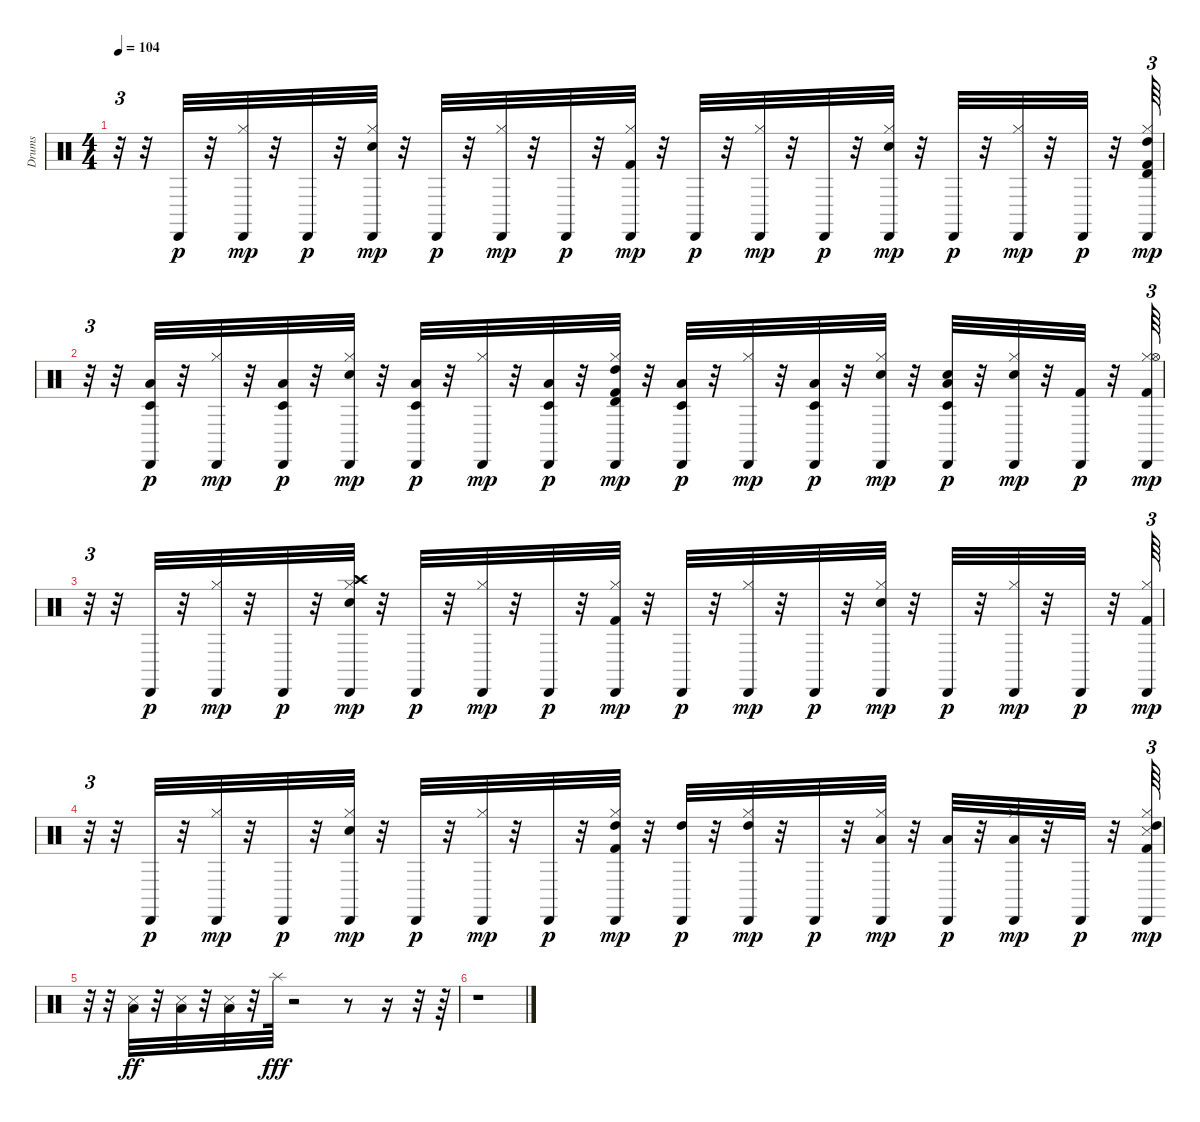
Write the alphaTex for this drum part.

\track ("Drums               " "Drums     ") {instrument percussion}
\staff {score}
\articulation defaults
\ts (4 4)
\tempo 104
\clef neutral
\ks c
r.32{tu (3 2) dy mp} r.32 "Cabasa (hit)".32{dy p} r.32 ("Hi-Hat (closed)" "Cabasa (hit)").32{dy mp} r.32 "Cabasa (hit)".32{dy p} r.32 ("Snare (hit) 2" "Hi-Hat (closed)" "Cabasa (hit)").32{dy mp} r.32 "Cabasa (hit)".32{dy p} r.32 ("Hi-Hat (closed)" "Cabasa (hit)").32{dy mp} r.32 "Cabasa (hit)".32{dy p} r.32 ("Kick (hit) 2" "Hi-Hat (closed)" "Cabasa (hit)").32{dy mp} r.32 "Cabasa (hit)".32{dy p} r.32 ("Hi-Hat (closed)" "Cabasa (hit)").32{dy mp} r.32 "Cabasa (hit)".32{dy p} r.32 ("Snare (hit) 2" "Hi-Hat (closed)" "Cabasa (hit)").32{dy mp} r.32 "Cabasa (hit)".32{dy p} r.32 ("Hi-Hat (closed)" "Cabasa (hit)").32{dy mp} r.32 "Cabasa (hit)".32{dy p} r.32 ("Kick (hit) 2" "Hi-Hat (closed)" "High Tom (hit)" "Timbale high (hit)" "Cabasa (hit)").64{tu (3 2) dy mp} |
r.32{tu (3 2)} r.32 ("Low Tom (hit)" "Timbale low (hit)" "Cabasa (hit)").32{dy p} r.32 ("Hi-Hat (closed)" "Cabasa (hit)").32{dy mp} r.32 ("Low Tom (hit)" "Timbale low (hit)" "Cabasa (hit)").32{dy p} r.32 ("Snare (hit) 2" "Hi-Hat (closed)" "Cabasa (hit)").32{dy mp} r.32 ("Low Tom (hit)" "Timbale low (hit)" "Cabasa (hit)").32{dy p} r.32 ("Hi-Hat (closed)" "Cabasa (hit)").32{dy mp} r.32 ("Low Tom (hit)" "Timbale low (hit)" "Cabasa (hit)").32{dy p} r.32 ("Kick (hit) 2" "Hi-Hat (closed)" "High Tom (hit)" "Timbale high (hit)" "Cabasa (hit)").32{dy mp} r.32 ("Low Tom (hit)" "Timbale low (hit)" "Cabasa (hit)").32{dy p} r.32 ("Hi-Hat (closed)" "Cabasa (hit)").32{dy mp} r.32 ("Low Tom (hit)" "Timbale low (hit)" "Cabasa (hit)").32{dy p} r.32 ("Snare (hit) 2" "Hi-Hat (closed)" "Cabasa (hit)").32{dy mp} r.32 ("Snare (hit) 2" "Low Tom (hit)" "Timbale low (hit)" "Cabasa (hit)").32{dy p} r.32 ("Snare (hit) 2" "Hi-Hat (closed)" "Cabasa (hit)").32{dy mp} r.32 ("Kick (hit) 2" "Cabasa (hit)").32{dy p} r.32 ("Kick (hit) 2" "Hi-Hat (closed)" "Hi-Hat (open)" "Cabasa (hit)").64{tu (3 2) dy mp} |
r.32{tu (3 2)} r.32 "Cabasa (hit)".32{dy p} r.32 ("Hi-Hat (closed)" "Cabasa (hit)").32{dy mp} r.32 "Cabasa (hit)".32{dy p} r.32 ("Snare (hit) 2" "Hi-Hat (closed)" "Crash high (hit)" "Splash (hit)" "Cabasa (hit)").32{dy mp} r.32 "Cabasa (hit)".32{dy p} r.32 ("Hi-Hat (closed)" "Cabasa (hit)").32{dy mp} r.32 "Cabasa (hit)".32{dy p} r.32 ("Kick (hit) 2" "Hi-Hat (closed)" "Cabasa (hit)").32{dy mp} r.32 "Cabasa (hit)".32{dy p} r.32 ("Hi-Hat (closed)" "Cabasa (hit)").32{dy mp} r.32 "Cabasa (hit)".32{dy p} r.32 ("Snare (hit) 2" "Hi-Hat (closed)" "Cabasa (hit)").32{dy mp} r.32 "Cabasa (hit)".32{dy p} r.32 ("Hi-Hat (closed)" "Cabasa (hit)").32{dy mp} r.32 "Cabasa (hit)".32{dy p} r.32 ("Kick (hit) 2" "Hi-Hat (closed)" "Cabasa (hit)").64{tu (3 2) dy mp} |
r.32{tu (3 2)} r.32 "Cabasa (hit)".32{dy p} r.32 ("Hi-Hat (closed)" "Cabasa (hit)").32{dy mp} r.32 "Cabasa (hit)".32{dy p} r.32 ("Snare (hit) 2" "Hi-Hat (closed)" "Cabasa (hit)").32{dy mp} r.32 "Cabasa (hit)".32{dy p} r.32 ("Hi-Hat (closed)" "Cabasa (hit)").32{dy mp} r.32 "Cabasa (hit)".32{dy p} r.32 ("Kick (hit) 2" "Hi-Hat (closed)" "High Tom (hit)" "Cabasa (hit)").32{dy mp} r.32 ("High Tom (hit)" "Cabasa (hit)").32{dy p} r.32 ("Hi-Hat (closed)" "High Tom (hit)" "Cabasa (hit)").32{dy mp} r.32 "Cabasa (hit)".32{dy p} r.32 ("Hi-Hat (closed)" "Low Tom (hit)" "Cabasa (hit)").32{dy mp} r.32 ("Low Tom (hit)" "Cabasa (hit)").32{dy p} r.32 ("Hi-Hat (closed)" "Low Tom (hit)" "Cabasa (hit)").32{dy mp} r.32 "Cabasa (hit)".32{dy p} r.32 ("Kick (hit) 2" "Snare (side stick) 3" "Hi-Hat (closed)" "High Tom (hit)" "Cabasa (hit)").64{tu (3 2) dy mp} |
r.32{tu (3 2)} r.32 ("Snare (side stick) 3" "Low Tom (hit)").32{dy ff} r.32 ("Snare (side stick) 3" "Low Floor Tom (hit)").32 r.32 ("Snare (side stick) 3" "Low Floor Tom (hit)").32 r.32 "Splash (hit)".64{dy fff} r.2 r.8 r.16 r.32 r.64 |
r.1
